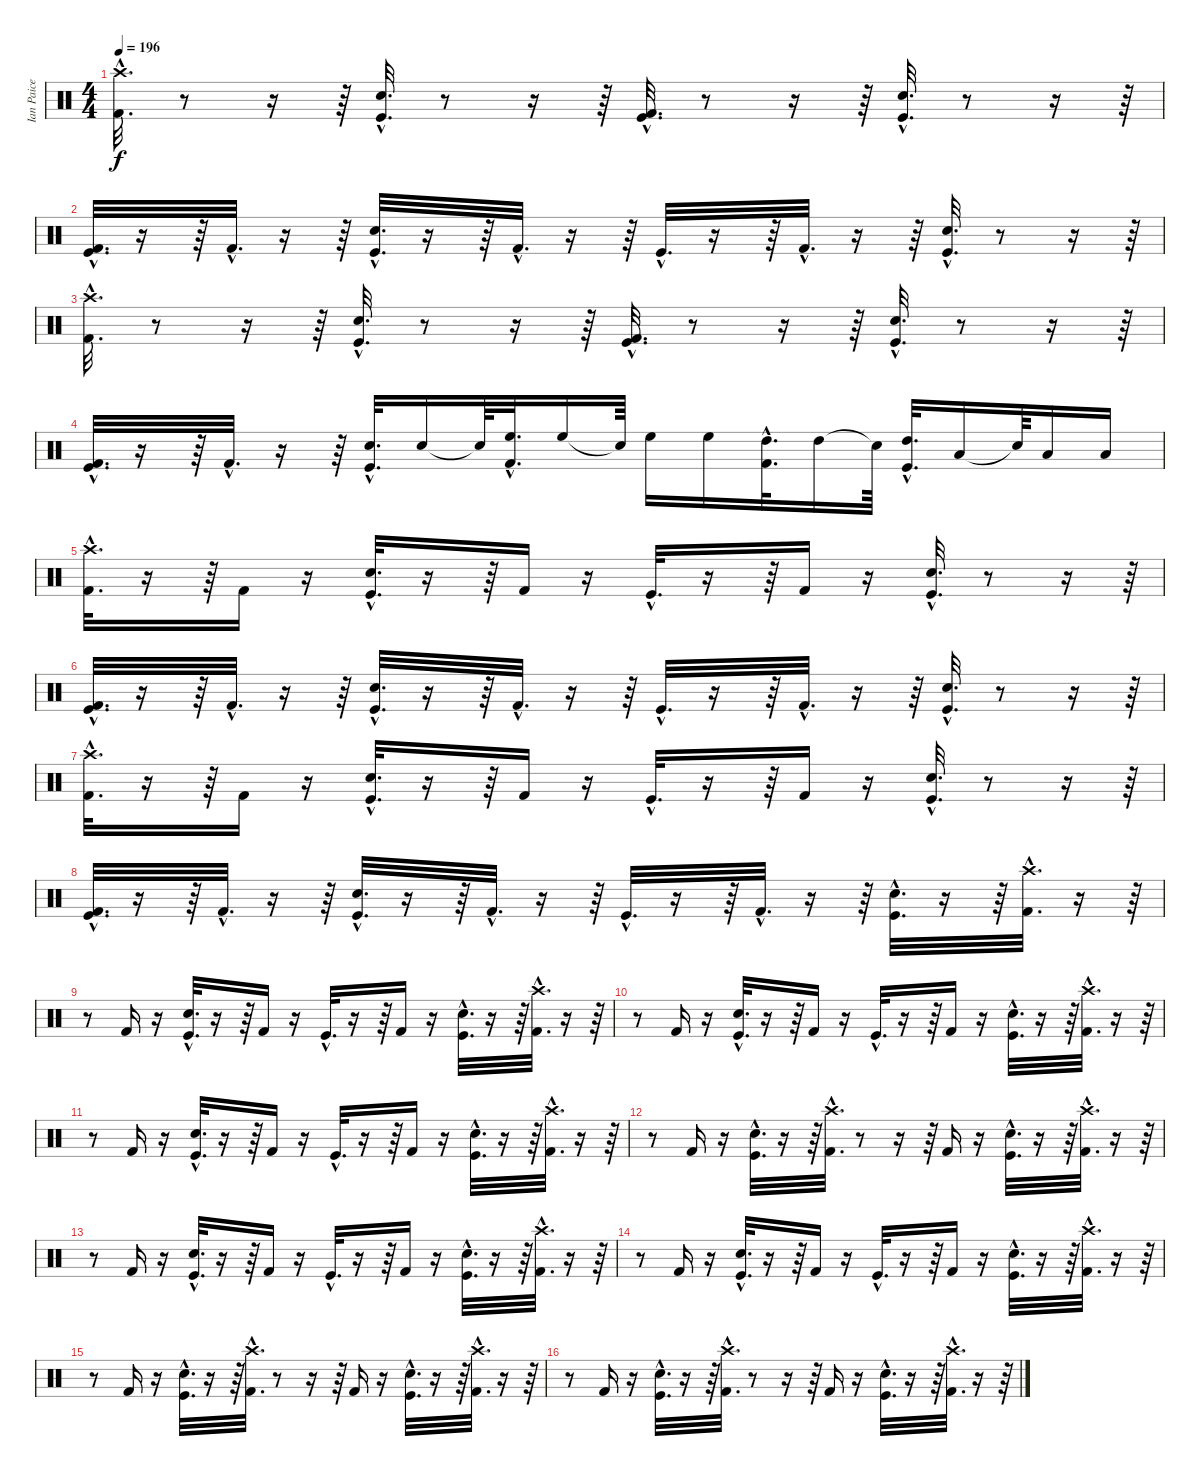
\track ("Ian Paice" "Ian Paice") {instrument percussion}
\staff {score}
\articulation defaults
\ts (4 4)
\tempo 196
\clef neutral
\ks c
("Kick (hit) 2"{hac} "Crash high (hit)"{hac}).32{d dy f} r.8 r.16 r.64 ("Kick (hit)"{hac} "Snare (hit) 2"{hac}).32{d} r.8 r.16 r.64 ("Kick (hit)"{hac} "Kick (hit) 2"{hac}).32{d} r.8 r.16 r.64 ("Kick (hit)"{hac} "Snare (hit) 2"{hac}).32{d} r.8 r.16 r.64 |
("Kick (hit)"{hac} "Kick (hit) 2"{hac}).32{d} r.16 r.64 "Kick (hit) 2"{hac}.32{d} r.16 r.64 ("Snare (hit) 2"{hac} "Kick (hit)"{hac}).32{d} r.16 r.64 "Kick (hit) 2"{hac}.32{d} r.16 r.64 "Kick (hit)"{hac}.32{d} r.16 r.64 "Kick (hit) 2"{hac}.32{d} r.16 r.64 ("Snare (hit) 2"{hac} "Kick (hit)"{hac}).32{d} r.8 r.16 r.64 |
("Kick (hit) 2"{hac} "Crash high (hit)"{hac}).32{d} r.8 r.16 r.64 ("Kick (hit)"{hac} "Snare (hit) 2"{hac}).32{d} r.8 r.16 r.64 ("Kick (hit)"{hac} "Kick (hit) 2"{hac}).32{d} r.8 r.16 r.64 ("Kick (hit)"{hac} "Snare (hit) 2"{hac}).32{d} r.8 r.16 r.64 |
("Kick (hit)"{hac} "Kick (hit) 2"{hac}).32{d} r.16 r.64 "Kick (hit) 2"{hac}.32{d} r.16 r.64 ("Snare (hit) 2"{hac} "Kick (hit)"{hac}).32{d} "Snare (hit) 2".16 "Snare (hit)"{t}.64 ("High Floor Tom (hit)"{hac} "Kick (hit) 2"{hac}).32{d} "High Floor Tom (hit)".16 "Snare (hit)"{t}.64 "High Floor Tom (hit)".16 "High Floor Tom (hit)".16 ("High Tom (hit)"{hac} "Kick (hit) 2"{hac}).32{d} "High Tom (hit)".16 "Snare (hit)"{t}.64 ("Kick (hit)"{hac} "High Tom (hit)"{hac}).32{d} "Low Tom (hit)".16 "Snare (hit)"{t}.64 "Low Tom (hit)".16 "Low Floor Tom (hit)".16 |
("Kick (hit) 2"{hac} "Crash high (hit)"{hac}).32{d} r.16 r.64 "Kick (hit) 2".16 r.16 ("Kick (hit)"{hac} "Snare (hit) 2"{hac}).32{d} r.16 r.64 "Kick (hit) 2".16 r.16 "Kick (hit)"{hac}.32{d} r.16 r.64 "Kick (hit) 2".16 r.16 ("Kick (hit)"{hac} "Snare (hit) 2"{hac}).32{d} r.8 r.16 r.64 |
("Kick (hit)"{hac} "Kick (hit) 2"{hac}).32{d} r.16 r.64 "Kick (hit) 2"{hac}.32{d} r.16 r.64 ("Snare (hit) 2"{hac} "Kick (hit)"{hac}).32{d} r.16 r.64 "Kick (hit) 2"{hac}.32{d} r.16 r.64 "Kick (hit)"{hac}.32{d} r.16 r.64 "Kick (hit) 2"{hac}.32{d} r.16 r.64 ("Snare (hit) 2"{hac} "Kick (hit)"{hac}).32{d} r.8 r.16 r.64 |
("Kick (hit) 2"{hac} "Crash high (hit)"{hac}).32{d} r.16 r.64 "Kick (hit) 2".16 r.16 ("Kick (hit)"{hac} "Snare (hit) 2"{hac}).32{d} r.16 r.64 "Kick (hit) 2".16 r.16 "Kick (hit)"{hac}.32{d} r.16 r.64 "Kick (hit) 2".16 r.16 ("Kick (hit)"{hac} "Snare (hit) 2"{hac}).32{d} r.8 r.16 r.64 |
("Kick (hit)"{hac} "Kick (hit) 2"{hac}).32{d} r.16 r.64 "Kick (hit) 2"{hac}.32{d} r.16 r.64 ("Snare (hit) 2"{hac} "Kick (hit)"{hac}).32{d} r.16 r.64 "Kick (hit) 2"{hac}.32{d} r.16 r.64 "Kick (hit)"{hac}.32{d} r.16 r.64 "Kick (hit) 2"{hac}.32{d} r.16 r.64 ("Snare (hit) 2"{hac} "Kick (hit)"{hac}).32{d} r.16 r.64 ("Kick (hit) 2"{hac} "Crash high (hit)"{hac}).32{d} r.16 r.64 |
r.8 "Kick (hit) 2".16 r.16 ("Kick (hit)"{hac} "Snare (hit) 2"{hac}).32{d} r.16 r.64 "Kick (hit) 2".16 r.16 "Kick (hit)"{hac}.32{d} r.16 r.64 "Kick (hit) 2".16 r.16 ("Kick (hit)"{hac} "Snare (hit) 2"{hac}).32{d} r.16 r.64 ("Kick (hit) 2"{hac} "Crash high (hit)"{hac}).32{d} r.16 r.64 |
r.8 "Kick (hit) 2".16 r.16 ("Kick (hit)"{hac} "Snare (hit) 2"{hac}).32{d} r.16 r.64 "Kick (hit) 2".16 r.16 "Kick (hit)"{hac}.32{d} r.16 r.64 "Kick (hit) 2".16 r.16 ("Kick (hit)"{hac} "Snare (hit) 2"{hac}).32{d} r.16 r.64 ("Kick (hit) 2"{hac} "Crash high (hit)"{hac}).32{d} r.16 r.64 |
r.8 "Kick (hit) 2".16 r.16 ("Kick (hit)"{hac} "Snare (hit) 2"{hac}).32{d} r.16 r.64 "Kick (hit) 2".16 r.16 "Kick (hit)"{hac}.32{d} r.16 r.64 "Kick (hit) 2".16 r.16 ("Kick (hit)"{hac} "Snare (hit) 2"{hac}).32{d} r.16 r.64 ("Kick (hit) 2"{hac} "Crash high (hit)"{hac}).32{d} r.16 r.64 |
r.8 "Kick (hit) 2".16 r.16 ("Kick (hit)"{hac} "Snare (hit) 2"{hac}).32{d} r.16 r.64 ("Kick (hit) 2"{hac} "Crash high (hit)"{hac}).32{d} r.8 r.16 r.64 "Kick (hit) 2".16 r.16 ("Kick (hit)"{hac} "Snare (hit) 2"{hac}).32{d} r.16 r.64 ("Kick (hit) 2"{hac} "Crash high (hit)"{hac}).32{d} r.16 r.64 |
r.8 "Kick (hit) 2".16 r.16 ("Kick (hit)"{hac} "Snare (hit) 2"{hac}).32{d} r.16 r.64 "Kick (hit) 2".16 r.16 "Kick (hit)"{hac}.32{d} r.16 r.64 "Kick (hit) 2".16 r.16 ("Kick (hit)"{hac} "Snare (hit) 2"{hac}).32{d} r.16 r.64 ("Kick (hit) 2"{hac} "Crash high (hit)"{hac}).32{d} r.16 r.64 |
r.8 "Kick (hit) 2".16 r.16 ("Kick (hit)"{hac} "Snare (hit) 2"{hac}).32{d} r.16 r.64 "Kick (hit) 2".16 r.16 "Kick (hit)"{hac}.32{d} r.16 r.64 "Kick (hit) 2".16 r.16 ("Kick (hit)"{hac} "Snare (hit) 2"{hac}).32{d} r.16 r.64 ("Kick (hit) 2"{hac} "Crash high (hit)"{hac}).32{d} r.16 r.64 |
r.8 "Kick (hit) 2".16 r.16 ("Kick (hit)"{hac} "Snare (hit) 2"{hac}).32{d} r.16 r.64 ("Kick (hit) 2"{hac} "Crash high (hit)"{hac}).32{d} r.8 r.16 r.64 "Kick (hit) 2".16 r.16 ("Kick (hit)"{hac} "Snare (hit) 2"{hac}).32{d} r.16 r.64 ("Kick (hit) 2"{hac} "Crash high (hit)"{hac}).32{d} r.16 r.64 |
r.8 "Kick (hit) 2".16 r.16 ("Kick (hit)"{hac} "Snare (hit) 2"{hac}).32{d} r.16 r.64 ("Kick (hit) 2"{hac} "Crash high (hit)"{hac}).32{d} r.8 r.16 r.64 "Kick (hit) 2".16 r.16 ("Kick (hit)"{hac} "Snare (hit) 2"{hac}).32{d} r.16 r.64 ("Kick (hit) 2"{hac} "Crash high (hit)"{hac}).32{d} r.16 r.64
